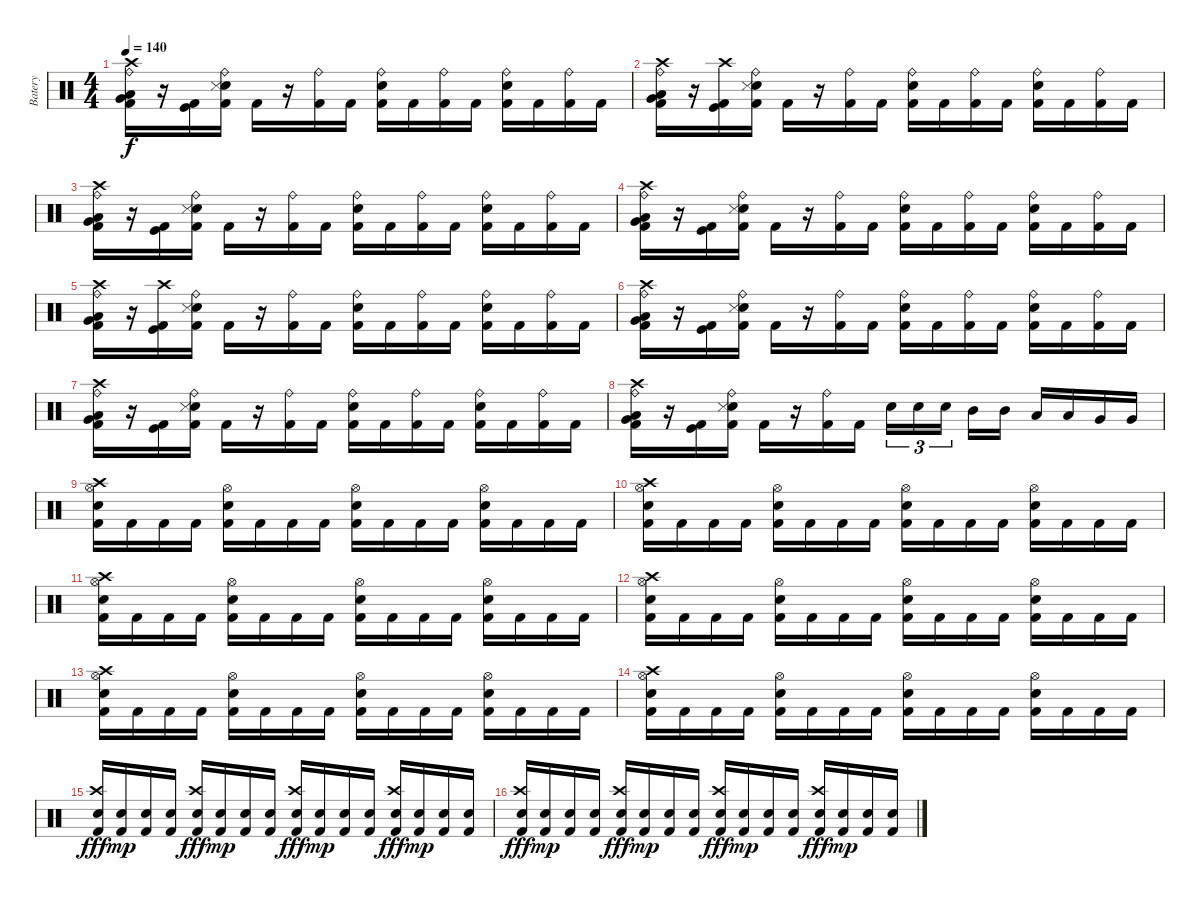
\track ("Batery" "Batery") {instrument percussion}
\staff {score}
\articulation defaults
\ts (4 4)
\tempo 140
\clef neutral
\ks c
("Kick (hit) 2" "Low Tom (hit)" "Crash high (hit)" "Very Low Tom (hit)" "Ride (bell)").16{dy f} r.16 ("Kick (hit) 2" "Kick (hit)").16 ("Kick (hit) 2" "Electric Snare (hit)" "Snare (side stick) 3" "Ride (bell)").16 "Kick (hit) 2".16 r.16 ("Kick (hit) 2" "Ride (bell)").16 "Kick (hit) 2".16 ("Kick (hit) 2" "Electric Snare (hit)" "Ride (bell)").16 "Kick (hit) 2".16 ("Kick (hit) 2" "Ride (bell)").16 "Kick (hit) 2".16 ("Kick (hit) 2" "Electric Snare (hit)" "Ride (bell)").16 "Kick (hit) 2".16 ("Kick (hit) 2" "Ride (bell)").16 "Kick (hit) 2".16 |
("Kick (hit) 2" "Low Tom (hit)" "Crash high (hit)" "Very Low Tom (hit)" "Ride (bell)").16 r.16 ("Kick (hit) 2" "Kick (hit)" "Crash high (hit)").16 ("Kick (hit) 2" "Electric Snare (hit)" "Snare (side stick) 3" "Ride (bell)").16 "Kick (hit) 2".16 r.16 ("Kick (hit) 2" "Ride (bell)").16 "Kick (hit) 2".16 ("Kick (hit) 2" "Electric Snare (hit)" "Ride (bell)").16 "Kick (hit) 2".16 ("Kick (hit) 2" "Ride (bell)").16 "Kick (hit) 2".16 ("Kick (hit) 2" "Electric Snare (hit)" "Ride (bell)").16 "Kick (hit) 2".16 ("Kick (hit) 2" "Ride (bell)").16 "Kick (hit) 2".16 |
("Kick (hit) 2" "Low Tom (hit)" "Crash high (hit)" "Very Low Tom (hit)" "Ride (bell)").16 r.16 ("Kick (hit) 2" "Kick (hit)").16 ("Kick (hit) 2" "Electric Snare (hit)" "Snare (side stick) 3" "Ride (bell)").16 "Kick (hit) 2".16 r.16 ("Kick (hit) 2" "Ride (bell)").16 "Kick (hit) 2".16 ("Kick (hit) 2" "Electric Snare (hit)" "Ride (bell)").16 "Kick (hit) 2".16 ("Kick (hit) 2" "Ride (bell)").16 "Kick (hit) 2".16 ("Kick (hit) 2" "Electric Snare (hit)" "Ride (bell)").16 "Kick (hit) 2".16 ("Kick (hit) 2" "Ride (bell)").16 "Kick (hit) 2".16 |
("Kick (hit) 2" "Low Tom (hit)" "Crash high (hit)" "Very Low Tom (hit)" "Ride (bell)").16 r.16 ("Kick (hit) 2" "Kick (hit)").16 ("Kick (hit) 2" "Electric Snare (hit)" "Snare (side stick) 3" "Ride (bell)").16 "Kick (hit) 2".16 r.16 ("Kick (hit) 2" "Ride (bell)").16 "Kick (hit) 2".16 ("Kick (hit) 2" "Electric Snare (hit)" "Ride (bell)").16 "Kick (hit) 2".16 ("Kick (hit) 2" "Ride (bell)").16 "Kick (hit) 2".16 ("Kick (hit) 2" "Electric Snare (hit)" "Ride (bell)").16 "Kick (hit) 2".16 ("Kick (hit) 2" "Ride (bell)").16 "Kick (hit) 2".16 |
("Kick (hit) 2" "Low Tom (hit)" "Crash high (hit)" "Very Low Tom (hit)" "Ride (bell)").16 r.16 ("Kick (hit) 2" "Kick (hit)" "Crash high (hit)").16 ("Kick (hit) 2" "Electric Snare (hit)" "Snare (side stick) 3" "Ride (bell)").16 "Kick (hit) 2".16 r.16 ("Kick (hit) 2" "Ride (bell)").16 "Kick (hit) 2".16 ("Kick (hit) 2" "Electric Snare (hit)" "Ride (bell)").16 "Kick (hit) 2".16 ("Kick (hit) 2" "Ride (bell)").16 "Kick (hit) 2".16 ("Kick (hit) 2" "Electric Snare (hit)" "Ride (bell)").16 "Kick (hit) 2".16 ("Kick (hit) 2" "Ride (bell)").16 "Kick (hit) 2".16 |
("Kick (hit) 2" "Low Tom (hit)" "Crash high (hit)" "Very Low Tom (hit)" "Ride (bell)").16 r.16 ("Kick (hit) 2" "Kick (hit)").16 ("Kick (hit) 2" "Electric Snare (hit)" "Snare (side stick) 3" "Ride (bell)").16 "Kick (hit) 2".16 r.16 ("Kick (hit) 2" "Ride (bell)").16 "Kick (hit) 2".16 ("Kick (hit) 2" "Electric Snare (hit)" "Ride (bell)").16 "Kick (hit) 2".16 ("Kick (hit) 2" "Ride (bell)").16 "Kick (hit) 2".16 ("Kick (hit) 2" "Electric Snare (hit)" "Ride (bell)").16 "Kick (hit) 2".16 ("Kick (hit) 2" "Ride (bell)").16 "Kick (hit) 2".16 |
("Kick (hit) 2" "Low Tom (hit)" "Crash high (hit)" "Very Low Tom (hit)" "Ride (bell)").16 r.16 ("Kick (hit) 2" "Kick (hit)").16 ("Kick (hit) 2" "Electric Snare (hit)" "Snare (side stick) 3" "Ride (bell)").16 "Kick (hit) 2".16 r.16 ("Kick (hit) 2" "Ride (bell)").16 "Kick (hit) 2".16 ("Kick (hit) 2" "Electric Snare (hit)" "Ride (bell)").16 "Kick (hit) 2".16 ("Kick (hit) 2" "Ride (bell)").16 "Kick (hit) 2".16 ("Kick (hit) 2" "Electric Snare (hit)" "Ride (bell)").16 "Kick (hit) 2".16 ("Kick (hit) 2" "Ride (bell)").16 "Kick (hit) 2".16 |
("Kick (hit) 2" "Low Tom (hit)" "Crash high (hit)" "Very Low Tom (hit)" "Ride (bell)").16 r.16 ("Kick (hit) 2" "Kick (hit)").16 ("Kick (hit) 2" "Electric Snare (hit)" "Snare (side stick) 3" "Ride (bell)").16 "Kick (hit) 2".16 r.16 ("Kick (hit) 2" "Ride (bell)").16 "Kick (hit) 2".16 "Electric Snare (hit)".16{tu (3 2)} "Electric Snare (hit)".16{tu (3 2)} "Electric Snare (hit)".16{tu (3 2)} "Mid Tom (hit)".16 "Mid Tom (hit)".16 "Low Tom (hit)".16 "Low Tom (hit)".16 "Very Low Tom (hit)".16 "Very Low Tom (hit)".16 |
("Kick (hit) 2" "Electric Snare (hit)" "Hi-Hat (open)" "Crash high (hit)").16 "Kick (hit) 2".16 "Kick (hit) 2".16 "Kick (hit) 2".16 ("Kick (hit) 2" "Electric Snare (hit)" "Hi-Hat (open)").16 "Kick (hit) 2".16 "Kick (hit) 2".16 "Kick (hit) 2".16 ("Kick (hit) 2" "Electric Snare (hit)" "Hi-Hat (open)").16 "Kick (hit) 2".16 "Kick (hit) 2".16 "Kick (hit) 2".16 ("Kick (hit) 2" "Electric Snare (hit)" "Hi-Hat (open)").16 "Kick (hit) 2".16 "Kick (hit) 2".16 "Kick (hit) 2".16 |
("Kick (hit) 2" "Electric Snare (hit)" "Hi-Hat (open)" "Crash high (hit)").16 "Kick (hit) 2".16 "Kick (hit) 2".16 "Kick (hit) 2".16 ("Kick (hit) 2" "Electric Snare (hit)" "Hi-Hat (open)").16 "Kick (hit) 2".16 "Kick (hit) 2".16 "Kick (hit) 2".16 ("Kick (hit) 2" "Electric Snare (hit)" "Hi-Hat (open)").16 "Kick (hit) 2".16 "Kick (hit) 2".16 "Kick (hit) 2".16 ("Kick (hit) 2" "Electric Snare (hit)" "Hi-Hat (open)").16 "Kick (hit) 2".16 "Kick (hit) 2".16 "Kick (hit) 2".16 |
("Kick (hit) 2" "Electric Snare (hit)" "Hi-Hat (open)" "Crash high (hit)").16 "Kick (hit) 2".16 "Kick (hit) 2".16 "Kick (hit) 2".16 ("Kick (hit) 2" "Electric Snare (hit)" "Hi-Hat (open)").16 "Kick (hit) 2".16 "Kick (hit) 2".16 "Kick (hit) 2".16 ("Kick (hit) 2" "Electric Snare (hit)" "Hi-Hat (open)").16 "Kick (hit) 2".16 "Kick (hit) 2".16 "Kick (hit) 2".16 ("Kick (hit) 2" "Electric Snare (hit)" "Hi-Hat (open)").16 "Kick (hit) 2".16 "Kick (hit) 2".16 "Kick (hit) 2".16 |
("Kick (hit) 2" "Electric Snare (hit)" "Hi-Hat (open)" "Crash high (hit)").16 "Kick (hit) 2".16 "Kick (hit) 2".16 "Kick (hit) 2".16 ("Kick (hit) 2" "Electric Snare (hit)" "Hi-Hat (open)").16 "Kick (hit) 2".16 "Kick (hit) 2".16 "Kick (hit) 2".16 ("Kick (hit) 2" "Electric Snare (hit)" "Hi-Hat (open)").16 "Kick (hit) 2".16 "Kick (hit) 2".16 "Kick (hit) 2".16 ("Kick (hit) 2" "Electric Snare (hit)" "Hi-Hat (open)").16 "Kick (hit) 2".16 "Kick (hit) 2".16 "Kick (hit) 2".16 |
("Kick (hit) 2" "Electric Snare (hit)" "Hi-Hat (open)" "Crash high (hit)").16 "Kick (hit) 2".16 "Kick (hit) 2".16 "Kick (hit) 2".16 ("Kick (hit) 2" "Electric Snare (hit)" "Hi-Hat (open)").16 "Kick (hit) 2".16 "Kick (hit) 2".16 "Kick (hit) 2".16 ("Kick (hit) 2" "Electric Snare (hit)" "Hi-Hat (open)").16 "Kick (hit) 2".16 "Kick (hit) 2".16 "Kick (hit) 2".16 ("Kick (hit) 2" "Electric Snare (hit)" "Hi-Hat (open)").16 "Kick (hit) 2".16 "Kick (hit) 2".16 "Kick (hit) 2".16 |
("Kick (hit) 2" "Electric Snare (hit)" "Hi-Hat (open)" "Crash high (hit)").16 "Kick (hit) 2".16 "Kick (hit) 2".16 "Kick (hit) 2".16 ("Kick (hit) 2" "Electric Snare (hit)" "Hi-Hat (open)").16 "Kick (hit) 2".16 "Kick (hit) 2".16 "Kick (hit) 2".16 ("Kick (hit) 2" "Electric Snare (hit)" "Hi-Hat (open)").16 "Kick (hit) 2".16 "Kick (hit) 2".16 "Kick (hit) 2".16 ("Kick (hit) 2" "Electric Snare (hit)" "Hi-Hat (open)").16 "Kick (hit) 2".16 "Kick (hit) 2".16 "Kick (hit) 2".16 |
("Kick (hit) 2" "Electric Snare (hit)" "Crash high (hit)").16{dy fff} ("Kick (hit) 2" "Electric Snare (hit)").16{dy mp} ("Kick (hit) 2" "Electric Snare (hit)").16 ("Kick (hit) 2" "Electric Snare (hit)").16 ("Kick (hit) 2" "Electric Snare (hit)" "Crash high (hit)").16{dy fff} ("Kick (hit) 2" "Electric Snare (hit)").16{dy mp} ("Kick (hit) 2" "Electric Snare (hit)").16 ("Kick (hit) 2" "Electric Snare (hit)").16 ("Kick (hit) 2" "Electric Snare (hit)" "Crash high (hit)").16{dy fff} ("Kick (hit) 2" "Electric Snare (hit)").16{dy mp} ("Kick (hit) 2" "Electric Snare (hit)").16 ("Kick (hit) 2" "Electric Snare (hit)").16 ("Kick (hit) 2" "Electric Snare (hit)" "Crash high (hit)").16{dy fff} ("Kick (hit) 2" "Electric Snare (hit)").16{dy mp} ("Kick (hit) 2" "Electric Snare (hit)").16 ("Kick (hit) 2" "Electric Snare (hit)").16 |
("Kick (hit) 2" "Electric Snare (hit)" "Crash high (hit)").16{dy fff} ("Kick (hit) 2" "Electric Snare (hit)").16{dy mp} ("Kick (hit) 2" "Electric Snare (hit)").16 ("Kick (hit) 2" "Electric Snare (hit)").16 ("Kick (hit) 2" "Electric Snare (hit)" "Crash high (hit)").16{dy fff} ("Kick (hit) 2" "Electric Snare (hit)").16{dy mp} ("Kick (hit) 2" "Electric Snare (hit)").16 ("Kick (hit) 2" "Electric Snare (hit)").16 ("Kick (hit) 2" "Electric Snare (hit)" "Crash high (hit)").16{dy fff} ("Kick (hit) 2" "Electric Snare (hit)").16{dy mp} ("Kick (hit) 2" "Electric Snare (hit)").16 ("Kick (hit) 2" "Electric Snare (hit)").16 ("Kick (hit) 2" "Electric Snare (hit)" "Crash high (hit)").16{dy fff} ("Kick (hit) 2" "Electric Snare (hit)").16{dy mp} ("Kick (hit) 2" "Electric Snare (hit)").16 ("Kick (hit) 2" "Electric Snare (hit)").16
